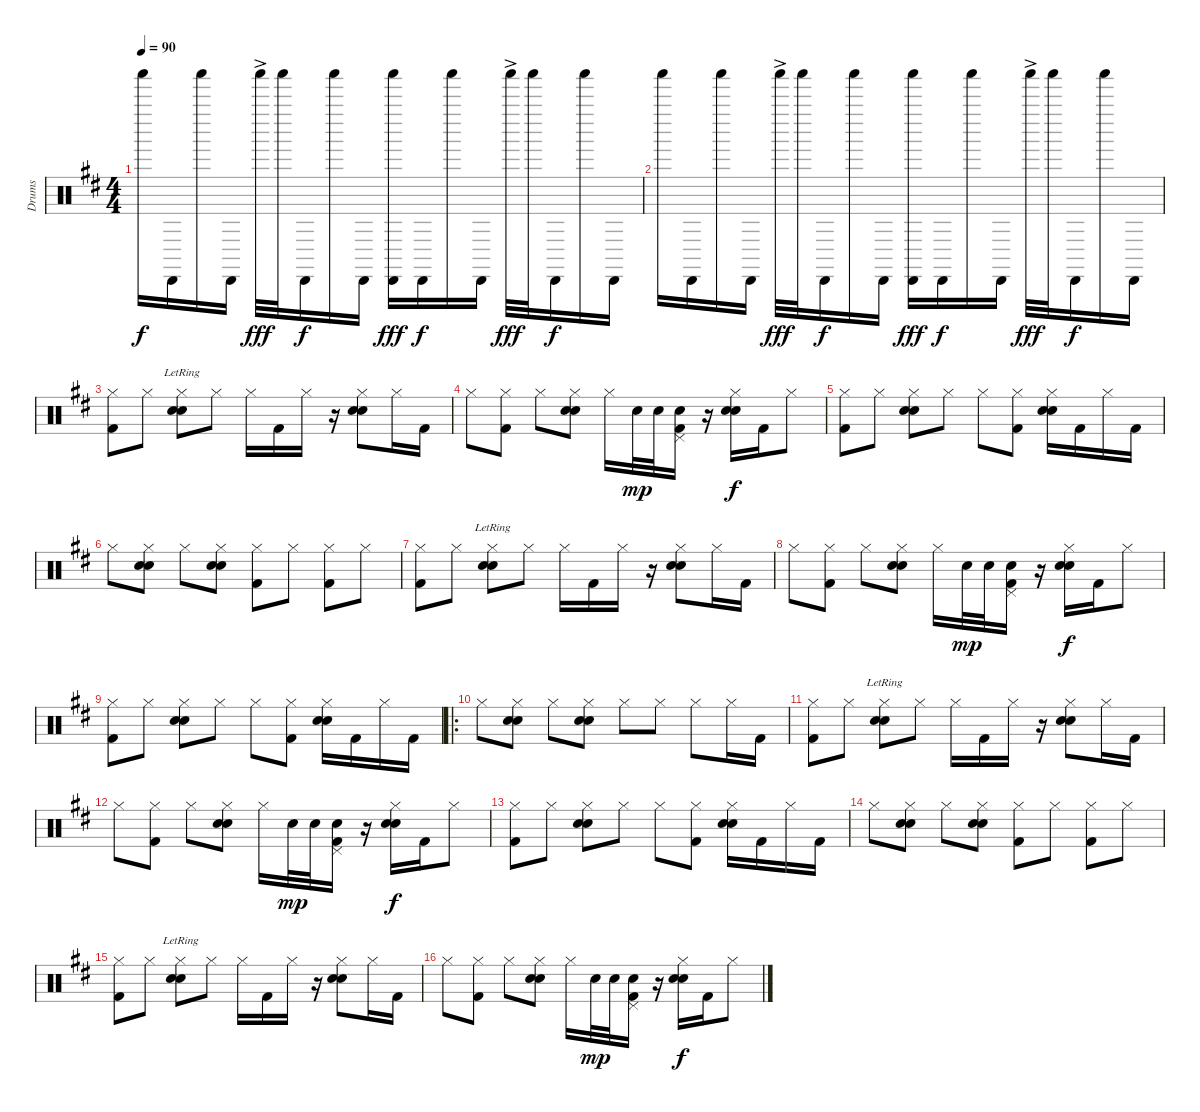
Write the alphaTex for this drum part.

\track ("Drums" "Drums") {instrument percussion}
\staff {score}
\articulation defaults
\ts (4 4)
\tempo 90
\clef neutral
\ks d "Shaker (hit)".16{dy f} "Cabasa (hit)".16 "Shaker (hit)".16 "Cabasa (hit)".16 "Shaker (hit)"{ac}.32{dy fff} "Shaker (hit)".32 "Cabasa (hit)".16{dy f} "Shaker (hit)".16 "Cabasa (hit)".16
("Shaker (hit)" "Cabasa (hit)").16{dy fff} "Cabasa (hit)".16{dy f} "Shaker (hit)".16 "Cabasa (hit)".16 "Shaker (hit)"{ac}.32{dy fff} "Shaker (hit)".32 "Cabasa (hit)".16{dy f} "Shaker (hit)".16 "Cabasa (hit)".16 |
"Shaker (hit)".16 "Cabasa (hit)".16 "Shaker (hit)".16 "Cabasa (hit)".16 "Shaker (hit)"{ac}.32{dy fff} "Shaker (hit)".32 "Cabasa (hit)".16{dy f} "Shaker (hit)".16 "Cabasa (hit)".16 ("Shaker (hit)" "Cabasa (hit)").16{dy fff} "Cabasa (hit)".16{dy f} "Shaker (hit)".16 "Cabasa (hit)".16 "Shaker (hit)"{ac}.32{dy fff} "Shaker (hit)".32 "Cabasa (hit)".16{dy f} "Shaker (hit)".16 "Cabasa (hit)".16 |
("Hi-Hat (closed)" "Kick (hit) 2").8 "Hi-Hat (closed)".8 ("Hi-Hat (closed)" "Snare (hit) 2"{lr} "Electric Snare (hit)").8 "Hi-Hat (closed)".8 "Hi-Hat (closed)".16 "Kick (hit) 2".16 "Hi-Hat (closed)".16 r.16 ("Hi-Hat (closed)" "Snare (hit) 2" "Electric Snare (hit)").8 "Hi-Hat (closed)".16 "Kick (hit) 2".16 |
"Hi-Hat (closed)".8 ("Hi-Hat (closed)" "Kick (hit) 2").8 "Hi-Hat (closed)".8 ("Hi-Hat (closed)" "Snare (hit) 2" "Electric Snare (hit)").8 "Hi-Hat (closed)".16 "Electric Snare (hit)".32{dy mp} "Electric Snare (hit)".32 ("Pedal Hi-Hat (hit)" "Electric Snare (hit)" "Kick (hit) 2").16 r.16 ("Hi-Hat (closed)" "Snare (hit) 2" "Electric Snare (hit)").16{dy f} "Kick (hit) 2".16 "Hi-Hat (closed)".8 |
("Hi-Hat (closed)" "Kick (hit) 2").8 "Hi-Hat (closed)".8 ("Hi-Hat (closed)" "Snare (hit) 2" "Electric Snare (hit)").8 "Hi-Hat (closed)".8 "Hi-Hat (closed)".8 ("Hi-Hat (closed)" "Kick (hit) 2").8 ("Hi-Hat (closed)" "Snare (hit) 2" "Electric Snare (hit)").16 "Kick (hit) 2".16 "Hi-Hat (closed)".16 "Kick (hit) 2".16 |
"Hi-Hat (closed)".8 ("Hi-Hat (closed)" "Snare (hit) 2" "Electric Snare (hit)").8 "Hi-Hat (closed)".8 ("Hi-Hat (closed)" "Snare (hit) 2" "Electric Snare (hit)").8 ("Hi-Hat (closed)" "Kick (hit) 2").8 "Hi-Hat (closed)".8 ("Hi-Hat (closed)" "Kick (hit) 2").8 "Hi-Hat (closed)".8 |
("Hi-Hat (closed)" "Kick (hit) 2").8 "Hi-Hat (closed)".8 ("Hi-Hat (closed)" "Snare (hit) 2"{lr} "Electric Snare (hit)").8 "Hi-Hat (closed)".8 "Hi-Hat (closed)".16 "Kick (hit) 2".16 "Hi-Hat (closed)".16 r.16 ("Hi-Hat (closed)" "Snare (hit) 2" "Electric Snare (hit)").8 "Hi-Hat (closed)".16 "Kick (hit) 2".16 |
"Hi-Hat (closed)".8 ("Hi-Hat (closed)" "Kick (hit) 2").8 "Hi-Hat (closed)".8 ("Hi-Hat (closed)" "Snare (hit) 2" "Electric Snare (hit)").8 "Hi-Hat (closed)".16 "Electric Snare (hit)".32{dy mp} "Electric Snare (hit)".32 ("Pedal Hi-Hat (hit)" "Electric Snare (hit)" "Kick (hit) 2").16 r.16 ("Hi-Hat (closed)" "Snare (hit) 2" "Electric Snare (hit)").16{dy f} "Kick (hit) 2".16 "Hi-Hat (closed)".8 |
("Hi-Hat (closed)" "Kick (hit) 2").8 "Hi-Hat (closed)".8 ("Hi-Hat (closed)" "Snare (hit) 2" "Electric Snare (hit)").8 "Hi-Hat (closed)".8 "Hi-Hat (closed)".8 ("Hi-Hat (closed)" "Kick (hit) 2").8 ("Hi-Hat (closed)" "Snare (hit) 2" "Electric Snare (hit)").16 "Kick (hit) 2".16 "Hi-Hat (closed)".16 "Kick (hit) 2".16 |
\ro "Hi-Hat (closed)".8
("Hi-Hat (closed)" "Snare (hit) 2" "Electric Snare (hit)").8 "Hi-Hat (closed)".8 ("Hi-Hat (closed)" "Snare (hit) 2" "Electric Snare (hit)").8 "Hi-Hat (closed)".8 "Hi-Hat (closed)".8 "Hi-Hat (closed)".8 "Hi-Hat (closed)".16 "Kick (hit) 2".16 |
("Hi-Hat (closed)" "Kick (hit) 2").8 "Hi-Hat (closed)".8 ("Hi-Hat (closed)" "Snare (hit) 2"{lr} "Electric Snare (hit)").8 "Hi-Hat (closed)".8 "Hi-Hat (closed)".16 "Kick (hit) 2".16 "Hi-Hat (closed)".16 r.16 ("Hi-Hat (closed)" "Snare (hit) 2" "Electric Snare (hit)").8 "Hi-Hat (closed)".16 "Kick (hit) 2".16 |
"Hi-Hat (closed)".8 ("Hi-Hat (closed)" "Kick (hit) 2").8 "Hi-Hat (closed)".8 ("Hi-Hat (closed)" "Snare (hit) 2" "Electric Snare (hit)").8 "Hi-Hat (closed)".16 "Electric Snare (hit)".32{dy mp} "Electric Snare (hit)".32 ("Pedal Hi-Hat (hit)" "Electric Snare (hit)" "Kick (hit) 2").16 r.16 ("Hi-Hat (closed)" "Snare (hit) 2" "Electric Snare (hit)").16{dy f} "Kick (hit) 2".16 "Hi-Hat (closed)".8 |
("Hi-Hat (closed)" "Kick (hit) 2").8 "Hi-Hat (closed)".8 ("Hi-Hat (closed)" "Snare (hit) 2" "Electric Snare (hit)").8 "Hi-Hat (closed)".8 "Hi-Hat (closed)".8 ("Hi-Hat (closed)" "Kick (hit) 2").8 ("Hi-Hat (closed)" "Snare (hit) 2" "Electric Snare (hit)").16 "Kick (hit) 2".16 "Hi-Hat (closed)".16 "Kick (hit) 2".16 |
"Hi-Hat (closed)".8 ("Hi-Hat (closed)" "Snare (hit) 2" "Electric Snare (hit)").8 "Hi-Hat (closed)".8 ("Hi-Hat (closed)" "Snare (hit) 2" "Electric Snare (hit)").8 ("Hi-Hat (closed)" "Kick (hit) 2").8 "Hi-Hat (closed)".8 ("Hi-Hat (closed)" "Kick (hit) 2").8 "Hi-Hat (closed)".8 |
("Hi-Hat (closed)" "Kick (hit) 2").8 "Hi-Hat (closed)".8 ("Hi-Hat (closed)" "Snare (hit) 2"{lr} "Electric Snare (hit)").8 "Hi-Hat (closed)".8 "Hi-Hat (closed)".16 "Kick (hit) 2".16 "Hi-Hat (closed)".16 r.16 ("Hi-Hat (closed)" "Snare (hit) 2" "Electric Snare (hit)").8 "Hi-Hat (closed)".16 "Kick (hit) 2".16 |
"Hi-Hat (closed)".8 ("Hi-Hat (closed)" "Kick (hit) 2").8 "Hi-Hat (closed)".8 ("Hi-Hat (closed)" "Snare (hit) 2" "Electric Snare (hit)").8 "Hi-Hat (closed)".16 "Electric Snare (hit)".32{dy mp} "Electric Snare (hit)".32 ("Pedal Hi-Hat (hit)" "Electric Snare (hit)" "Kick (hit) 2").16 r.16 ("Hi-Hat (closed)" "Snare (hit) 2" "Electric Snare (hit)").16{dy f} "Kick (hit) 2".16 "Hi-Hat (closed)".8
